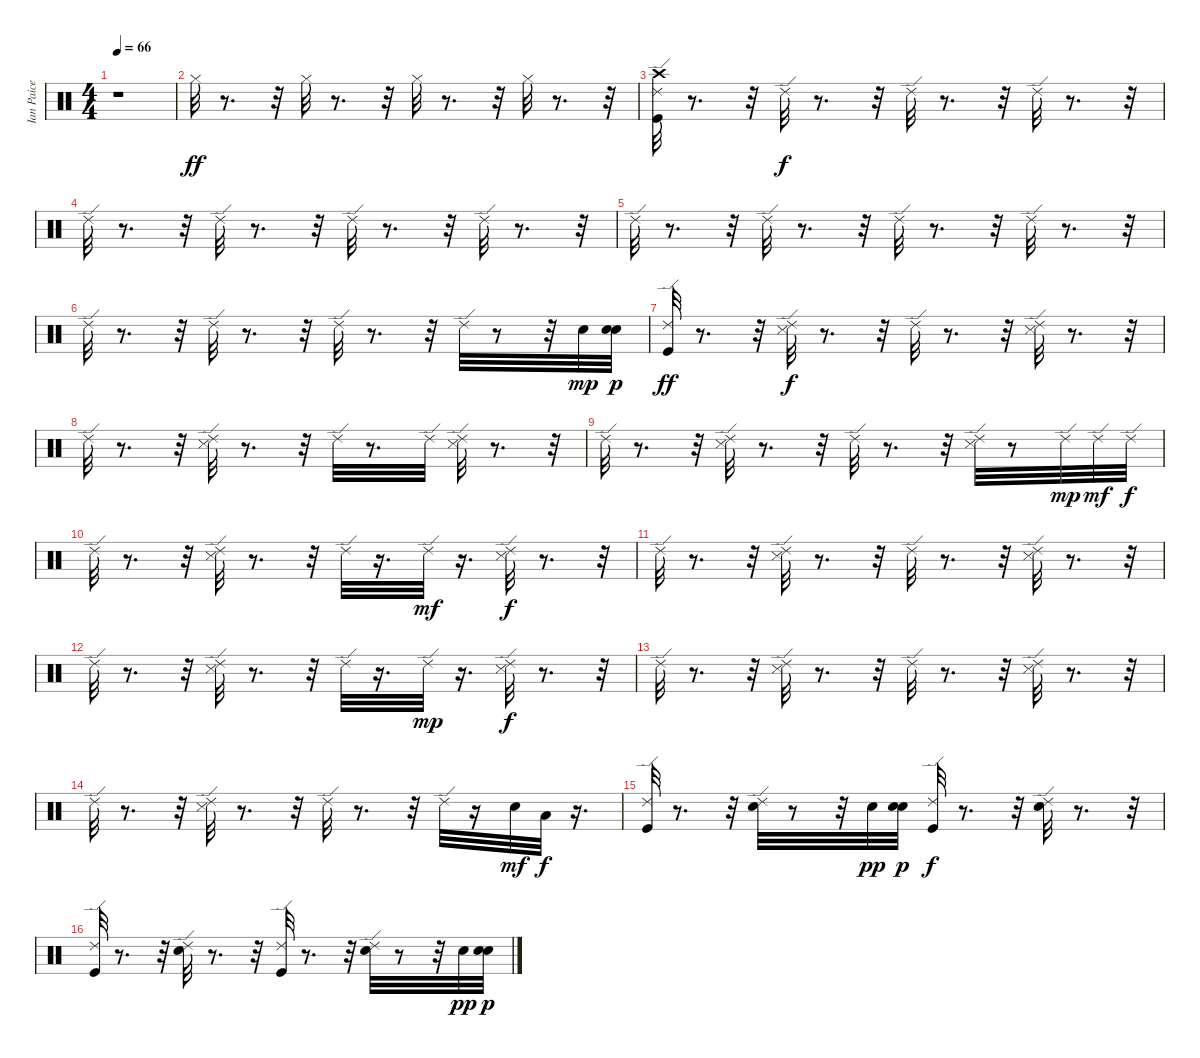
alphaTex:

\track ("Ian Paice" "Ian Paice") {instrument percussion}
\staff {score}
\articulation defaults
\ts (4 4)
\tempo 66
\clef neutral
\ks c
r.1{dy ff} |
"Hi-Hat (closed)".32 r.8{d} r.32 "Hi-Hat (closed)".32 r.8{d} r.32 "Hi-Hat (closed)".32 r.8{d} r.32 "Hi-Hat (closed)".32 r.8{d} r.32 |
("Crash high (hit)" "Kick (hit)" "Ride (edge) 2").32 r.8{d} r.32 "Ride (edge) 2".32{dy f} r.8{d} r.32 "Ride (edge) 2".32 r.8{d} r.32 "Ride (edge) 2".32 r.8{d} r.32 |
"Ride (edge) 2".32 r.8{d} r.32 "Ride (edge) 2".32 r.8{d} r.32 "Ride (edge) 2".32 r.8{d} r.32 "Ride (edge) 2".32 r.8{d} r.32 |
"Ride (edge) 2".32 r.8{d} r.32 "Ride (edge) 2".32 r.8{d} r.32 "Ride (edge) 2".32 r.8{d} r.32 "Ride (edge) 2".32 r.8{d} r.32 |
"Ride (edge) 2".32 r.8{d} r.32 "Ride (edge) 2".32 r.8{d} r.32 "Ride (edge) 2".32 r.8{d} r.32 "Ride (edge) 2".32 r.8 r.32 "Snare (hit) 2".32{dy mp} ("Snare (hit) 2" "Snare (hit) 2").32{dy p} |
("Kick (hit)" "Ride (edge) 2").32{dy ff} r.8{d} r.32 ("Snare (side stick) 3" "Ride (edge) 2").32{dy f} r.8{d} r.32 "Ride (edge) 2".32 r.8{d} r.32 ("Snare (side stick) 3" "Ride (edge) 2").32 r.8{d} r.32 |
"Ride (edge) 2".32 r.8{d} r.32 ("Snare (side stick) 3" "Ride (edge) 2").32 r.8{d} r.32 "Ride (edge) 2".32 r.8{d} "Ride (edge) 2".32 ("Snare (side stick) 3" "Ride (edge) 2").32 r.8{d} r.32 |
"Ride (edge) 2".32 r.8{d} r.32 ("Snare (side stick) 3" "Ride (edge) 2").32 r.8{d} r.32 "Ride (edge) 2".32 r.8{d} r.32 ("Snare (side stick) 3" "Ride (edge) 2").32 r.8 "Ride (edge) 2".32{dy mp} "Ride (edge) 2".32{dy mf} "Ride (edge) 2".32{dy f} |
"Ride (edge) 2".32 r.8{d} r.32 ("Snare (side stick) 3" "Ride (edge) 2").32 r.8{d} r.32 "Ride (edge) 2".32 r.16{d} "Ride (edge) 2".32{dy mf} r.16{d} ("Snare (side stick) 3" "Ride (edge) 2").32{dy f} r.8{d} r.32 |
"Ride (edge) 2".32 r.8{d} r.32 ("Snare (side stick) 3" "Ride (edge) 2").32 r.8{d} r.32 "Ride (edge) 2".32 r.8{d} r.32 ("Snare (side stick) 3" "Ride (edge) 2").32 r.8{d} r.32 |
"Ride (edge) 2".32 r.8{d} r.32 ("Snare (side stick) 3" "Ride (edge) 2").32 r.8{d} r.32 "Ride (edge) 2".32 r.16{d} "Ride (edge) 2".32{dy mp} r.16{d} ("Snare (side stick) 3" "Ride (edge) 2").32{dy f} r.8{d} r.32 |
"Ride (edge) 2".32 r.8{d} r.32 ("Ride (edge) 2" "Snare (side stick) 3").32 r.8{d} r.32 "Ride (edge) 2".32 r.8{d} r.32 ("Snare (side stick) 3" "Ride (edge) 2").32 r.8{d} r.32 |
"Ride (edge) 2".32 r.8{d} r.32 ("Snare (side stick) 3" "Ride (edge) 2").32 r.8{d} r.32 "Ride (edge) 2".32 r.8{d} r.32 "Ride (edge) 2".32 r.16 "Snare (hit) 2".32{dy mf} "Low Tom (hit)".32{dy f} r.16{d} |
("Kick (hit)" "Ride (edge) 2").32 r.8{d} r.32 ("Snare (hit) 2" "Ride (edge) 2").32 r.8 r.32 "Snare (hit) 2".32{dy pp} ("Snare (hit) 2" "Snare (hit) 2").32{dy p} ("Kick (hit)" "Ride (edge) 2").32{dy f} r.8{d} r.32 ("Snare (hit) 2" "Ride (edge) 2").32 r.8{d} r.32 |
("Kick (hit)" "Ride (edge) 2").32 r.8{d} r.32 ("Snare (hit) 2" "Ride (edge) 2").32 r.8{d} r.32 ("Kick (hit)" "Ride (edge) 2").32 r.8{d} r.32 ("Snare (hit) 2" "Ride (edge) 2").32 r.8 r.32 "Snare (hit) 2".32{dy pp} ("Snare (hit) 2" "Snare (hit) 2").32{dy p}
